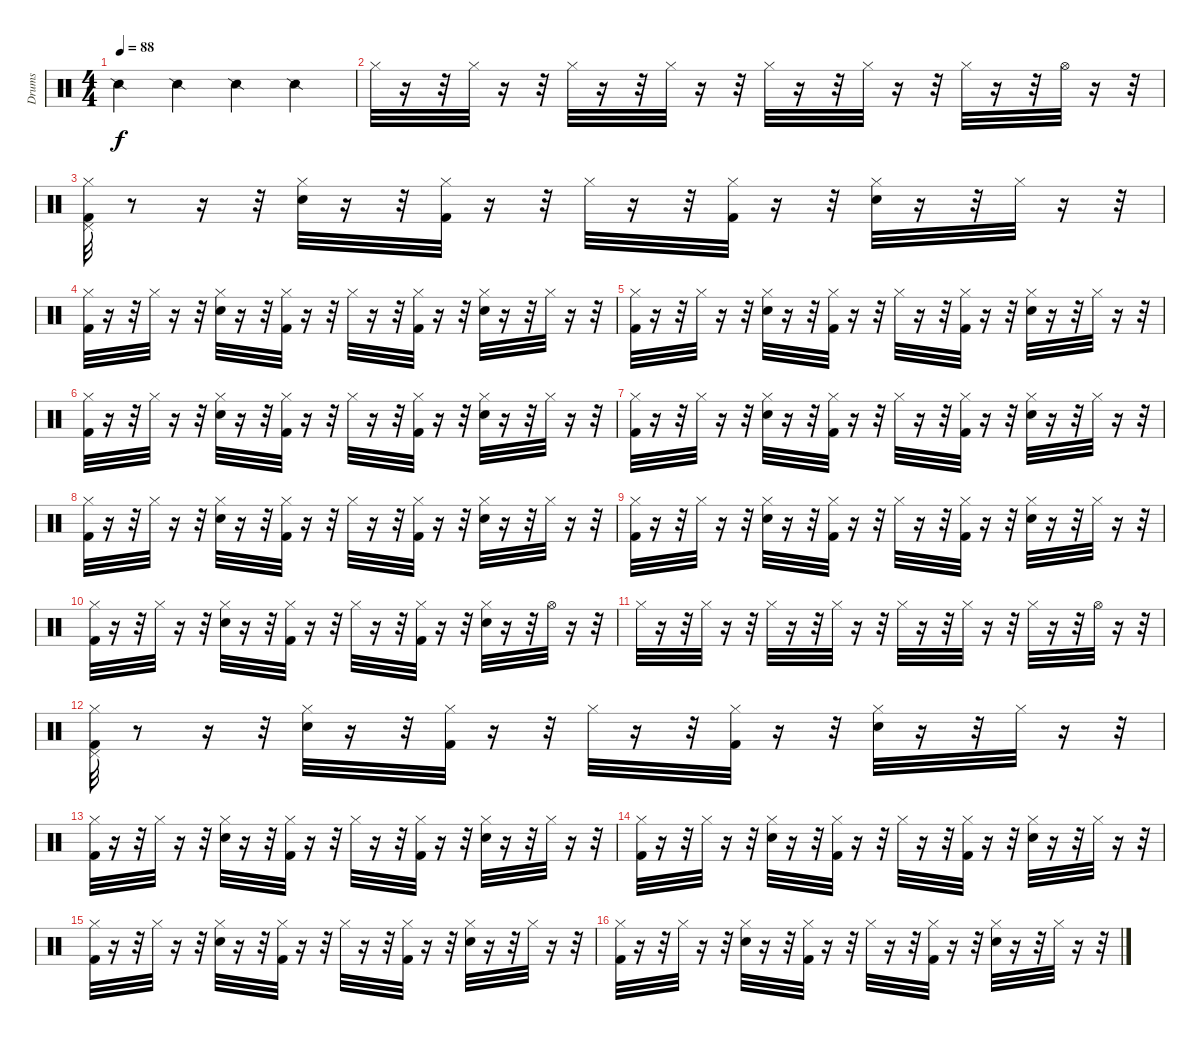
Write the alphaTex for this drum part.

\track ("Drums" "Drums") {instrument percussion}
\staff {score}
\articulation defaults
\ts (4 4)
\tempo 88
\clef neutral
\ks c "Snare (side stick) 2".4{dy f} "Snare (side stick) 2".4 "Snare (side stick) 2".4 "Snare (side stick) 2".4
|
"Hi-Hat (closed)".32 r.16 r.32 "Hi-Hat (closed)".32 r.16 r.32 "Hi-Hat (closed)".32 r.16 r.32 "Hi-Hat (closed)".32 r.16 r.32 "Hi-Hat (closed)".32 r.16 r.32 "Hi-Hat (closed)".32 r.16 r.32 "Hi-Hat (closed)".32 r.16 r.32 "Hi-Hat (open)".32 r.16 r.32 |
("Hi-Hat (closed)" "Pedal Hi-Hat (hit)" "Kick (hit) 2").32 r.8 r.16 r.32 ("Hi-Hat (closed)" "Electric Snare (hit)").32 r.16 r.32 ("Kick (hit) 2" "Hi-Hat (closed)").32 r.16 r.32 "Hi-Hat (closed)".32 r.16 r.32 ("Kick (hit) 2" "Hi-Hat (closed)").32 r.16 r.32 ("Hi-Hat (closed)" "Electric Snare (hit)").32 r.16 r.32 "Hi-Hat (closed)".32 r.16 r.32 |
("Hi-Hat (closed)" "Kick (hit) 2").32 r.16 r.32 "Hi-Hat (closed)".32 r.16 r.32 ("Hi-Hat (closed)" "Electric Snare (hit)").32 r.16 r.32 ("Kick (hit) 2" "Hi-Hat (closed)").32 r.16 r.32 "Hi-Hat (closed)".32 r.16 r.32 ("Kick (hit) 2" "Hi-Hat (closed)").32 r.16 r.32 ("Hi-Hat (closed)" "Electric Snare (hit)").32 r.16 r.32 "Hi-Hat (closed)".32 r.16 r.32 |
("Hi-Hat (closed)" "Kick (hit) 2").32 r.16 r.32 "Hi-Hat (closed)".32 r.16 r.32 ("Hi-Hat (closed)" "Electric Snare (hit)").32 r.16 r.32 ("Kick (hit) 2" "Hi-Hat (closed)").32 r.16 r.32 "Hi-Hat (closed)".32 r.16 r.32 ("Kick (hit) 2" "Hi-Hat (closed)").32 r.16 r.32 ("Hi-Hat (closed)" "Electric Snare (hit)").32 r.16 r.32 "Hi-Hat (closed)".32 r.16 r.32 |
("Hi-Hat (closed)" "Kick (hit) 2").32 r.16 r.32 "Hi-Hat (closed)".32 r.16 r.32 ("Hi-Hat (closed)" "Electric Snare (hit)").32 r.16 r.32 ("Kick (hit) 2" "Hi-Hat (closed)").32 r.16 r.32 "Hi-Hat (closed)".32 r.16 r.32 ("Kick (hit) 2" "Hi-Hat (closed)").32 r.16 r.32 ("Hi-Hat (closed)" "Electric Snare (hit)").32 r.16 r.32 "Hi-Hat (closed)".32 r.16 r.32 |
("Hi-Hat (closed)" "Kick (hit) 2").32 r.16 r.32 "Hi-Hat (closed)".32 r.16 r.32 ("Hi-Hat (closed)" "Electric Snare (hit)").32 r.16 r.32 ("Kick (hit) 2" "Hi-Hat (closed)").32 r.16 r.32 "Hi-Hat (closed)".32 r.16 r.32 ("Kick (hit) 2" "Hi-Hat (closed)").32 r.16 r.32 ("Hi-Hat (closed)" "Electric Snare (hit)").32 r.16 r.32 "Hi-Hat (closed)".32 r.16 r.32 |
("Hi-Hat (closed)" "Kick (hit) 2").32 r.16 r.32 "Hi-Hat (closed)".32 r.16 r.32 ("Hi-Hat (closed)" "Electric Snare (hit)").32 r.16 r.32 ("Kick (hit) 2" "Hi-Hat (closed)").32 r.16 r.32 "Hi-Hat (closed)".32 r.16 r.32 ("Kick (hit) 2" "Hi-Hat (closed)").32 r.16 r.32 ("Hi-Hat (closed)" "Electric Snare (hit)").32 r.16 r.32 "Hi-Hat (closed)".32 r.16 r.32 |
("Hi-Hat (closed)" "Kick (hit) 2").32 r.16 r.32 "Hi-Hat (closed)".32 r.16 r.32 ("Hi-Hat (closed)" "Electric Snare (hit)").32 r.16 r.32 ("Kick (hit) 2" "Hi-Hat (closed)").32 r.16 r.32 "Hi-Hat (closed)".32 r.16 r.32 ("Kick (hit) 2" "Hi-Hat (closed)").32 r.16 r.32 ("Hi-Hat (closed)" "Electric Snare (hit)").32 r.16 r.32 "Hi-Hat (closed)".32 r.16 r.32 |
("Hi-Hat (closed)" "Kick (hit) 2").32 r.16 r.32 "Hi-Hat (closed)".32 r.16 r.32 ("Hi-Hat (closed)" "Electric Snare (hit)").32 r.16 r.32 ("Kick (hit) 2" "Hi-Hat (closed)").32 r.16 r.32 "Hi-Hat (closed)".32 r.16 r.32 ("Kick (hit) 2" "Hi-Hat (closed)").32 r.16 r.32 ("Hi-Hat (closed)" "Electric Snare (hit)").32 r.16 r.32 "Hi-Hat (open)".32 r.16 r.32 |
"Hi-Hat (closed)".32 r.16 r.32 "Hi-Hat (closed)".32 r.16 r.32 "Hi-Hat (closed)".32 r.16 r.32 "Hi-Hat (closed)".32 r.16 r.32 "Hi-Hat (closed)".32 r.16 r.32 "Hi-Hat (closed)".32 r.16 r.32 "Hi-Hat (closed)".32 r.16 r.32 "Hi-Hat (open)".32 r.16 r.32 |
("Hi-Hat (closed)" "Pedal Hi-Hat (hit)" "Kick (hit) 2").32 r.8 r.16 r.32 ("Hi-Hat (closed)" "Electric Snare (hit)").32 r.16 r.32 ("Kick (hit) 2" "Hi-Hat (closed)").32 r.16 r.32 "Hi-Hat (closed)".32 r.16 r.32 ("Kick (hit) 2" "Hi-Hat (closed)").32 r.16 r.32 ("Hi-Hat (closed)" "Electric Snare (hit)").32 r.16 r.32 "Hi-Hat (closed)".32 r.16 r.32 |
("Hi-Hat (closed)" "Kick (hit) 2").32 r.16 r.32 "Hi-Hat (closed)".32 r.16 r.32 ("Hi-Hat (closed)" "Electric Snare (hit)").32 r.16 r.32 ("Kick (hit) 2" "Hi-Hat (closed)").32 r.16 r.32 "Hi-Hat (closed)".32 r.16 r.32 ("Kick (hit) 2" "Hi-Hat (closed)").32 r.16 r.32 ("Hi-Hat (closed)" "Electric Snare (hit)").32 r.16 r.32 "Hi-Hat (closed)".32 r.16 r.32 |
("Hi-Hat (closed)" "Kick (hit) 2").32 r.16 r.32 "Hi-Hat (closed)".32 r.16 r.32 ("Hi-Hat (closed)" "Electric Snare (hit)").32 r.16 r.32 ("Kick (hit) 2" "Hi-Hat (closed)").32 r.16 r.32 "Hi-Hat (closed)".32 r.16 r.32 ("Kick (hit) 2" "Hi-Hat (closed)").32 r.16 r.32 ("Hi-Hat (closed)" "Electric Snare (hit)").32 r.16 r.32 "Hi-Hat (closed)".32 r.16 r.32 |
("Hi-Hat (closed)" "Kick (hit) 2").32 r.16 r.32 "Hi-Hat (closed)".32 r.16 r.32 ("Hi-Hat (closed)" "Electric Snare (hit)").32 r.16 r.32 ("Kick (hit) 2" "Hi-Hat (closed)").32 r.16 r.32 "Hi-Hat (closed)".32 r.16 r.32 ("Kick (hit) 2" "Hi-Hat (closed)").32 r.16 r.32 ("Hi-Hat (closed)" "Electric Snare (hit)").32 r.16 r.32 "Hi-Hat (closed)".32 r.16 r.32 |
("Hi-Hat (closed)" "Kick (hit) 2").32 r.16 r.32 "Hi-Hat (closed)".32 r.16 r.32 ("Hi-Hat (closed)" "Electric Snare (hit)").32 r.16 r.32 ("Kick (hit) 2" "Hi-Hat (closed)").32 r.16 r.32 "Hi-Hat (closed)".32 r.16 r.32 ("Kick (hit) 2" "Hi-Hat (closed)").32 r.16 r.32 ("Hi-Hat (closed)" "Electric Snare (hit)").32 r.16 r.32 "Hi-Hat (closed)".32 r.16 r.32
